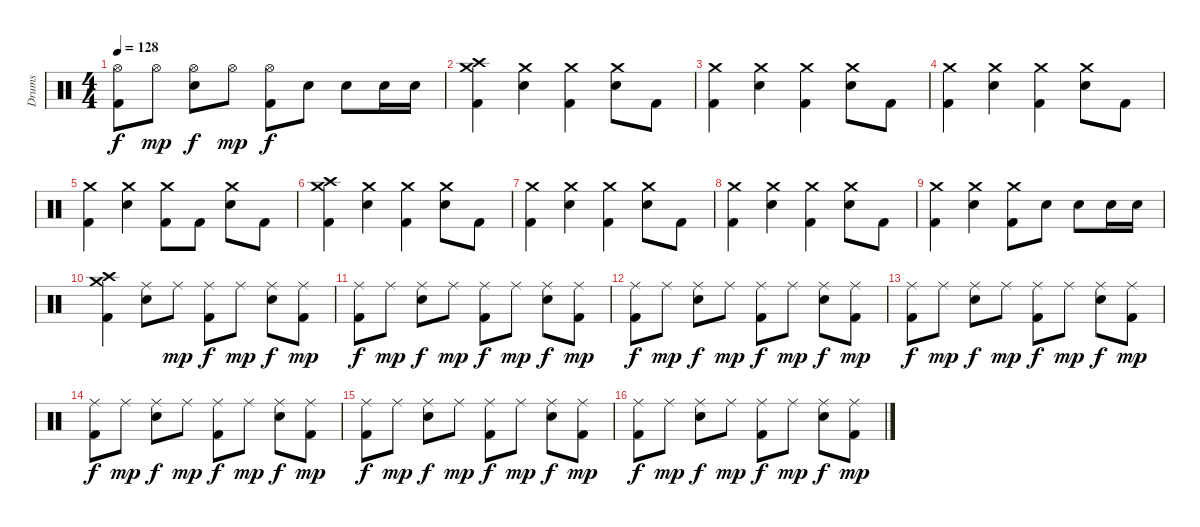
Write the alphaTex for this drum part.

\track ("Drums" "Drums") {instrument percussion}
\staff {score}
\articulation defaults
\ts (4 4)
\tempo 128
\clef neutral
\ks c
("Hi-Hat (open)" "Kick (hit) 2").8{dy f} "Hi-Hat (open)".8{dy mp} ("Hi-Hat (open)" "Snare (hit) 2").8{dy f} "Hi-Hat (open)".8{dy mp} ("Hi-Hat (open)" "Kick (hit) 2").8{dy f} "Snare (hit) 2".8 "Snare (hit) 2".8 "Snare (hit) 2".16 "Snare (hit) 2".16 |
("Crash high (hit)" "Crash medium (hit)" "Kick (hit) 2").4 ("Crash medium (hit)" "Snare (hit) 2").4 ("Crash medium (hit)" "Kick (hit) 2").4 ("Crash medium (hit)" "Snare (hit) 2").8 "Kick (hit) 2".8 |
("Crash medium (hit)" "Kick (hit) 2").4 ("Crash medium (hit)" "Snare (hit) 2").4 ("Crash medium (hit)" "Kick (hit) 2").4 ("Crash medium (hit)" "Snare (hit) 2").8 "Kick (hit) 2".8 |
("Crash medium (hit)" "Kick (hit) 2").4 ("Crash medium (hit)" "Snare (hit) 2").4 ("Crash medium (hit)" "Kick (hit) 2").4 ("Crash medium (hit)" "Snare (hit) 2").8 "Kick (hit) 2".8 |
("Crash medium (hit)" "Kick (hit) 2").4 ("Crash medium (hit)" "Snare (hit) 2").4 ("Crash medium (hit)" "Kick (hit) 2").8 "Kick (hit) 2".8 ("Crash medium (hit)" "Snare (hit) 2").8 "Kick (hit) 2".8 |
("Crash high (hit)" "Crash medium (hit)" "Kick (hit) 2").4 ("Crash medium (hit)" "Snare (hit) 2").4 ("Crash medium (hit)" "Kick (hit) 2").4 ("Crash medium (hit)" "Snare (hit) 2").8 "Kick (hit) 2".8 |
("Crash medium (hit)" "Kick (hit) 2").4 ("Crash medium (hit)" "Snare (hit) 2").4 ("Crash medium (hit)" "Kick (hit) 2").4 ("Crash medium (hit)" "Snare (hit) 2").8 "Kick (hit) 2".8 |
("Crash medium (hit)" "Kick (hit) 2").4 ("Crash medium (hit)" "Snare (hit) 2").4 ("Crash medium (hit)" "Kick (hit) 2").4 ("Crash medium (hit)" "Snare (hit) 2").8 "Kick (hit) 2".8 |
("Crash medium (hit)" "Kick (hit) 2").4 ("Crash medium (hit)" "Snare (hit) 2").4 ("Crash medium (hit)" "Kick (hit) 2").8 "Snare (hit) 2".8 "Snare (hit) 2".8 "Snare (hit) 2".16 "Snare (hit) 2".16 |
("Crash high (hit)" "Crash medium (hit)" "Kick (hit) 2").4 ("Ride (middle)" "Snare (hit) 2").8 "Ride (middle)".8{dy mp} ("Ride (middle)" "Kick (hit) 2").8{dy f} "Ride (middle)".8{dy mp} ("Ride (middle)" "Snare (hit) 2").8{dy f} ("Ride (middle)" "Kick (hit) 2").8{dy mp} |
("Ride (middle)" "Kick (hit) 2").8{dy f} "Ride (middle)".8{dy mp} ("Ride (middle)" "Snare (hit) 2").8{dy f} "Ride (middle)".8{dy mp} ("Ride (middle)" "Kick (hit) 2").8{dy f} "Ride (middle)".8{dy mp} ("Ride (middle)" "Snare (hit) 2").8{dy f} ("Ride (middle)" "Kick (hit) 2").8{dy mp} |
("Ride (middle)" "Kick (hit) 2").8{dy f} "Ride (middle)".8{dy mp} ("Ride (middle)" "Snare (hit) 2").8{dy f} "Ride (middle)".8{dy mp} ("Ride (middle)" "Kick (hit) 2").8{dy f} "Ride (middle)".8{dy mp} ("Ride (middle)" "Snare (hit) 2").8{dy f} ("Ride (middle)" "Kick (hit) 2").8{dy mp} |
("Ride (middle)" "Kick (hit) 2").8{dy f} "Ride (middle)".8{dy mp} ("Ride (middle)" "Snare (hit) 2").8{dy f} "Ride (middle)".8{dy mp} ("Ride (middle)" "Kick (hit) 2").8{dy f} "Ride (middle)".8{dy mp} ("Ride (middle)" "Snare (hit) 2").8{dy f} ("Ride (middle)" "Kick (hit) 2").8{dy mp} |
("Ride (middle)" "Kick (hit) 2").8{dy f} "Ride (middle)".8{dy mp} ("Ride (middle)" "Snare (hit) 2").8{dy f} "Ride (middle)".8{dy mp} ("Ride (middle)" "Kick (hit) 2").8{dy f} "Ride (middle)".8{dy mp} ("Ride (middle)" "Snare (hit) 2").8{dy f} ("Ride (middle)" "Kick (hit) 2").8{dy mp} |
("Ride (middle)" "Kick (hit) 2").8{dy f} "Ride (middle)".8{dy mp} ("Ride (middle)" "Snare (hit) 2").8{dy f} "Ride (middle)".8{dy mp} ("Ride (middle)" "Kick (hit) 2").8{dy f} "Ride (middle)".8{dy mp} ("Ride (middle)" "Snare (hit) 2").8{dy f} ("Ride (middle)" "Kick (hit) 2").8{dy mp} |
("Ride (middle)" "Kick (hit) 2").8{dy f} "Ride (middle)".8{dy mp} ("Ride (middle)" "Snare (hit) 2").8{dy f} "Ride (middle)".8{dy mp} ("Ride (middle)" "Kick (hit) 2").8{dy f} "Ride (middle)".8{dy mp} ("Ride (middle)" "Snare (hit) 2").8{dy f} ("Ride (middle)" "Kick (hit) 2").8{dy mp}
